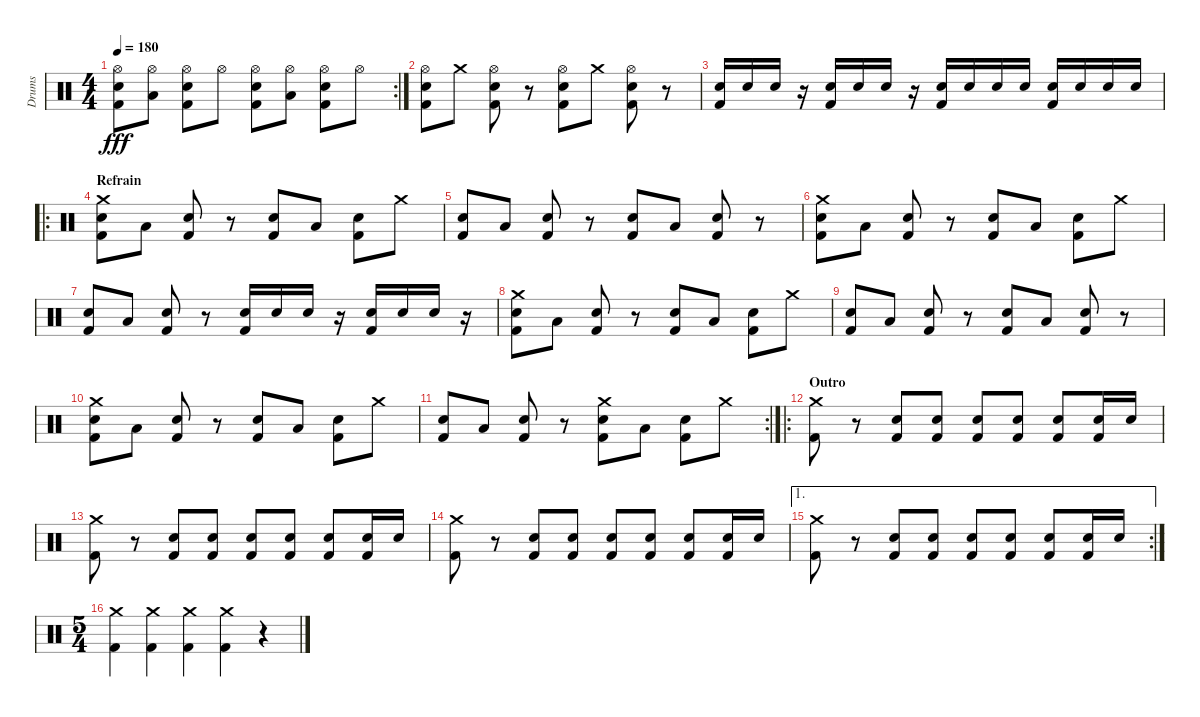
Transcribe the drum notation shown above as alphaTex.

\track ("Drums" "Drums") {instrument percussion}
\staff {score}
\articulation defaults
\rc 2
\ts (4 4)
\tempo 180
\clef neutral
\ks c
("Hi-Hat (open)" "Snare (hit) 2" "Kick (hit) 2").8{dy fff} ("Hi-Hat (open)" "Low Floor Tom (hit)").8 ("Hi-Hat (open)" "Snare (hit) 2" "Kick (hit) 2").8 "Hi-Hat (open)".8 ("Hi-Hat (open)" "Snare (hit) 2" "Kick (hit) 2").8 ("Hi-Hat (open)" "Low Floor Tom (hit)").8 ("Hi-Hat (open)" "Snare (hit) 2" "Kick (hit) 2").8 "Hi-Hat (open)".8 |
("Hi-Hat (open)" "Snare (hit) 2" "Kick (hit) 2").8 "Crash medium (hit)".8 ("Hi-Hat (open)" "Snare (hit) 2" "Kick (hit) 2").8 r.8 ("Hi-Hat (open)" "Snare (hit) 2" "Kick (hit) 2").8 "Crash medium (hit)".8 ("Hi-Hat (open)" "Snare (hit) 2" "Kick (hit) 2").8 r.8 |
("Snare (hit) 2" "Kick (hit) 2").16 "Snare (hit) 2".16 "Snare (hit) 2".16 r.16 ("Snare (hit) 2" "Kick (hit) 2").16 "Snare (hit) 2".16 "Snare (hit) 2".16 r.16 ("Snare (hit) 2" "Kick (hit) 2").16 "Snare (hit) 2".16 "Snare (hit) 2".16 "Snare (hit) 2".16 ("Snare (hit) 2" "Kick (hit) 2").16 "Snare (hit) 2".16 "Snare (hit) 2".16 "Snare (hit) 2".16 |
\ro
\section ("" "Refrain")
("Crash medium (hit)" "Snare (hit) 2" "Kick (hit) 2").8 "Low Floor Tom (hit)".8 ("Snare (hit) 2" "Kick (hit) 2").8 r.8 ("Snare (hit) 2" "Kick (hit) 2").8 "Low Floor Tom (hit)".8 ("Snare (hit) 2" "Kick (hit) 2").8 "Crash medium (hit)".8 |
("Snare (hit) 2" "Kick (hit) 2").8 "Low Floor Tom (hit)".8 ("Snare (hit) 2" "Kick (hit) 2").8 r.8 ("Snare (hit) 2" "Kick (hit) 2").8 "Low Floor Tom (hit)".8 ("Snare (hit) 2" "Kick (hit) 2").8 r.8 |
("Crash medium (hit)" "Snare (hit) 2" "Kick (hit) 2").8 "Low Floor Tom (hit)".8 ("Snare (hit) 2" "Kick (hit) 2").8 r.8 ("Snare (hit) 2" "Kick (hit) 2").8 "Low Floor Tom (hit)".8 ("Snare (hit) 2" "Kick (hit) 2").8 "Crash medium (hit)".8 |
("Snare (hit) 2" "Kick (hit) 2").8 "Low Floor Tom (hit)".8 ("Snare (hit) 2" "Kick (hit) 2").8 r.8 ("Snare (hit) 2" "Kick (hit) 2").16 "Snare (hit) 2".16 "Snare (hit) 2".16 r.16 ("Snare (hit) 2" "Kick (hit) 2").16 "Snare (hit) 2".16 "Snare (hit) 2".16 r.16 |
("Crash medium (hit)" "Snare (hit) 2" "Kick (hit) 2").8 "Low Floor Tom (hit)".8 ("Snare (hit) 2" "Kick (hit) 2").8 r.8 ("Snare (hit) 2" "Kick (hit) 2").8 "Low Floor Tom (hit)".8 ("Snare (hit) 2" "Kick (hit) 2").8 "Crash medium (hit)".8 |
("Snare (hit) 2" "Kick (hit) 2").8 "Low Floor Tom (hit)".8 ("Snare (hit) 2" "Kick (hit) 2").8 r.8 ("Snare (hit) 2" "Kick (hit) 2").8 "Low Floor Tom (hit)".8 ("Snare (hit) 2" "Kick (hit) 2").8 r.8 |
("Crash medium (hit)" "Snare (hit) 2" "Kick (hit) 2").8 "Low Floor Tom (hit)".8 ("Snare (hit) 2" "Kick (hit) 2").8 r.8 ("Snare (hit) 2" "Kick (hit) 2").8 "Low Floor Tom (hit)".8 ("Snare (hit) 2" "Kick (hit) 2").8 "Crash medium (hit)".8 |
\rc 2
("Snare (hit) 2" "Kick (hit) 2").8 "Low Floor Tom (hit)".8 ("Snare (hit) 2" "Kick (hit) 2").8 r.8 ("Crash medium (hit)" "Snare (hit) 2" "Kick (hit) 2").8 "Low Floor Tom (hit)".8 ("Snare (hit) 2" "Kick (hit) 2").8 "Crash medium (hit)".8 |
\ro
\section ("" "Outro")
("Crash medium (hit)" "Kick (hit) 2").8 r.8 ("Snare (hit) 2" "Kick (hit) 2").8 ("Snare (hit) 2" "Kick (hit) 2").8 ("Snare (hit) 2" "Kick (hit) 2").8 ("Snare (hit) 2" "Kick (hit) 2").8 ("Snare (hit) 2" "Kick (hit) 2").8 ("Snare (hit) 2" "Kick (hit) 2").16 "Snare (hit) 2".16 |
("Crash medium (hit)" "Kick (hit) 2").8 r.8 ("Snare (hit) 2" "Kick (hit) 2").8 ("Snare (hit) 2" "Kick (hit) 2").8 ("Snare (hit) 2" "Kick (hit) 2").8 ("Snare (hit) 2" "Kick (hit) 2").8 ("Snare (hit) 2" "Kick (hit) 2").8 ("Snare (hit) 2" "Kick (hit) 2").16 "Snare (hit) 2".16 |
("Crash medium (hit)" "Kick (hit) 2").8 r.8 ("Snare (hit) 2" "Kick (hit) 2").8 ("Snare (hit) 2" "Kick (hit) 2").8 ("Snare (hit) 2" "Kick (hit) 2").8 ("Snare (hit) 2" "Kick (hit) 2").8 ("Snare (hit) 2" "Kick (hit) 2").8 ("Snare (hit) 2" "Kick (hit) 2").16 "Snare (hit) 2".16 |
\ae 1
\rc 2
("Crash medium (hit)" "Kick (hit) 2").8 r.8 ("Snare (hit) 2" "Kick (hit) 2").8 ("Snare (hit) 2" "Kick (hit) 2").8 ("Snare (hit) 2" "Kick (hit) 2").8 ("Snare (hit) 2" "Kick (hit) 2").8 ("Snare (hit) 2" "Kick (hit) 2").8 ("Snare (hit) 2" "Kick (hit) 2").16 "Snare (hit) 2".16 |
\ts (5 4)
("Crash medium (hit)" "Kick (hit) 2").4 ("Crash medium (hit)" "Kick (hit) 2").4 ("Crash medium (hit)" "Kick (hit) 2").4 ("Crash medium (hit)" "Kick (hit) 2").4 r.4
